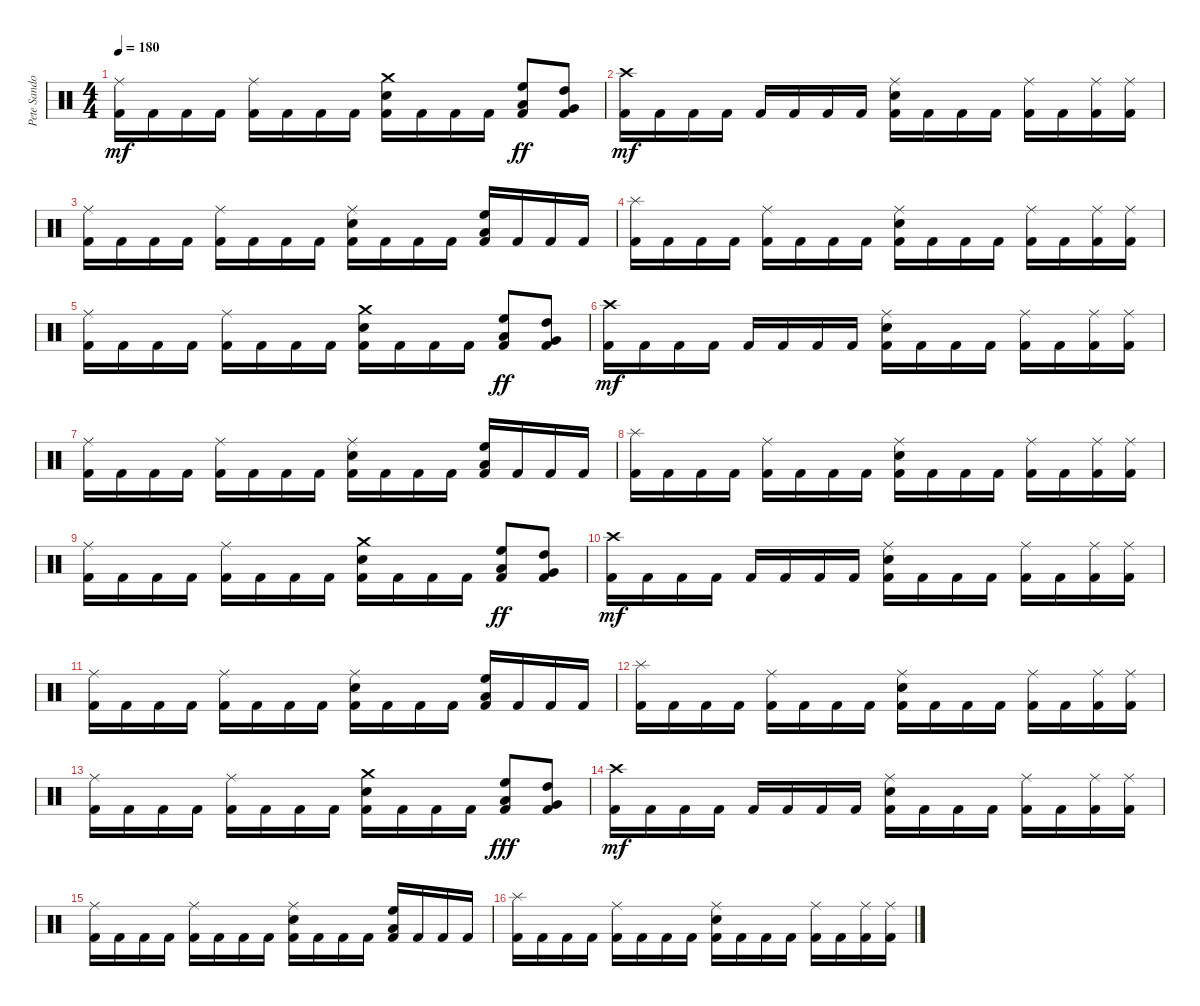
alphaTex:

\track ("Pete Sandoval" "Pete Sando") {instrument percussion}
\staff {score}
\articulation defaults
\ts (4 4)
\tempo 180
\clef neutral
\ks c
("Ride (middle)" "Kick (hit) 2").16{dy mf} "Kick (hit) 2".16 "Kick (hit) 2".16 "Kick (hit) 2".16 ("Ride (middle)" "Kick (hit) 2").16 "Kick (hit) 2".16 "Kick (hit) 2".16 "Kick (hit) 2".16 ("Snare (hit) 2" "Crash medium (hit)" "Kick (hit) 2").16 "Kick (hit) 2".16 "Kick (hit) 2".16 "Kick (hit) 2".16 ("High Floor Tom (hit)" "Low Tom (hit)" "Kick (hit) 2").8{dy ff} ("High Tom (hit)" "Very Low Tom (hit)" "Kick (hit) 2").8 |
("Crash high (hit)" "Kick (hit) 2").16{dy mf} "Kick (hit) 2".16 "Kick (hit) 2".16 "Kick (hit) 2".16 "Kick (hit) 2".16 "Kick (hit) 2".16 "Kick (hit) 2".16 "Kick (hit) 2".16 ("Snare (hit) 2" "Ride (middle)" "Kick (hit) 2").16 "Kick (hit) 2".16 "Kick (hit) 2".16 "Kick (hit) 2".16 ("Ride (middle)" "Kick (hit) 2").16 "Kick (hit) 2".16 ("Ride (middle)" "Kick (hit) 2").16 ("Ride (middle)" "Kick (hit) 2").16 |
("Ride (middle)" "Kick (hit) 2").16 "Kick (hit) 2".16 "Kick (hit) 2".16 "Kick (hit) 2".16 ("Ride (middle)" "Kick (hit) 2").16 "Kick (hit) 2".16 "Kick (hit) 2".16 "Kick (hit) 2".16 ("Snare (hit) 2" "Ride (middle)" "Kick (hit) 2").16 "Kick (hit) 2".16 "Kick (hit) 2".16 "Kick (hit) 2".16 ("High Floor Tom (hit)" "Low Tom (hit)" "Kick (hit) 2").16 "Kick (hit) 2".16 "Kick (hit) 2".16 "Kick (hit) 2".16 |
("Splash (hit)" "Kick (hit) 2").16 "Kick (hit) 2".16 "Kick (hit) 2".16 "Kick (hit) 2".16 ("Ride (middle)" "Kick (hit) 2").16 "Kick (hit) 2".16 "Kick (hit) 2".16 "Kick (hit) 2".16 ("Snare (hit) 2" "Ride (middle)" "Kick (hit) 2").16 "Kick (hit) 2".16 "Kick (hit) 2".16 "Kick (hit) 2".16 ("Ride (middle)" "Kick (hit) 2").16 "Kick (hit) 2".16 ("Ride (middle)" "Kick (hit) 2").16 ("Ride (middle)" "Kick (hit) 2").16 |
("Ride (middle)" "Kick (hit) 2").16 "Kick (hit) 2".16 "Kick (hit) 2".16 "Kick (hit) 2".16 ("Ride (middle)" "Kick (hit) 2").16 "Kick (hit) 2".16 "Kick (hit) 2".16 "Kick (hit) 2".16 ("Snare (hit) 2" "Crash medium (hit)" "Kick (hit) 2").16 "Kick (hit) 2".16 "Kick (hit) 2".16 "Kick (hit) 2".16 ("High Floor Tom (hit)" "Low Tom (hit)" "Kick (hit) 2").8{dy ff} ("High Tom (hit)" "Very Low Tom (hit)" "Kick (hit) 2").8 |
("Crash high (hit)" "Kick (hit) 2").16{dy mf} "Kick (hit) 2".16 "Kick (hit) 2".16 "Kick (hit) 2".16 "Kick (hit) 2".16 "Kick (hit) 2".16 "Kick (hit) 2".16 "Kick (hit) 2".16 ("Snare (hit) 2" "Ride (middle)" "Kick (hit) 2").16 "Kick (hit) 2".16 "Kick (hit) 2".16 "Kick (hit) 2".16 ("Ride (middle)" "Kick (hit) 2").16 "Kick (hit) 2".16 ("Ride (middle)" "Kick (hit) 2").16 ("Ride (middle)" "Kick (hit) 2").16 |
("Ride (middle)" "Kick (hit) 2").16 "Kick (hit) 2".16 "Kick (hit) 2".16 "Kick (hit) 2".16 ("Ride (middle)" "Kick (hit) 2").16 "Kick (hit) 2".16 "Kick (hit) 2".16 "Kick (hit) 2".16 ("Snare (hit) 2" "Ride (middle)" "Kick (hit) 2").16 "Kick (hit) 2".16 "Kick (hit) 2".16 "Kick (hit) 2".16 ("High Floor Tom (hit)" "Low Tom (hit)" "Kick (hit) 2").16 "Kick (hit) 2".16 "Kick (hit) 2".16 "Kick (hit) 2".16 |
("Splash (hit)" "Kick (hit) 2").16 "Kick (hit) 2".16 "Kick (hit) 2".16 "Kick (hit) 2".16 ("Ride (middle)" "Kick (hit) 2").16 "Kick (hit) 2".16 "Kick (hit) 2".16 "Kick (hit) 2".16 ("Snare (hit) 2" "Ride (middle)" "Kick (hit) 2").16 "Kick (hit) 2".16 "Kick (hit) 2".16 "Kick (hit) 2".16 ("Ride (middle)" "Kick (hit) 2").16 "Kick (hit) 2".16 ("Ride (middle)" "Kick (hit) 2").16 ("Ride (middle)" "Kick (hit) 2").16 |
("Ride (middle)" "Kick (hit) 2").16 "Kick (hit) 2".16 "Kick (hit) 2".16 "Kick (hit) 2".16 ("Ride (middle)" "Kick (hit) 2").16 "Kick (hit) 2".16 "Kick (hit) 2".16 "Kick (hit) 2".16 ("Snare (hit) 2" "Crash medium (hit)" "Kick (hit) 2").16 "Kick (hit) 2".16 "Kick (hit) 2".16 "Kick (hit) 2".16 ("High Floor Tom (hit)" "Low Tom (hit)" "Kick (hit) 2").8{dy ff} ("High Tom (hit)" "Very Low Tom (hit)" "Kick (hit) 2").8 |
("Crash high (hit)" "Kick (hit) 2").16{dy mf} "Kick (hit) 2".16 "Kick (hit) 2".16 "Kick (hit) 2".16 "Kick (hit) 2".16 "Kick (hit) 2".16 "Kick (hit) 2".16 "Kick (hit) 2".16 ("Snare (hit) 2" "Ride (middle)" "Kick (hit) 2").16 "Kick (hit) 2".16 "Kick (hit) 2".16 "Kick (hit) 2".16 ("Ride (middle)" "Kick (hit) 2").16 "Kick (hit) 2".16 ("Ride (middle)" "Kick (hit) 2").16 ("Ride (middle)" "Kick (hit) 2").16 |
("Ride (middle)" "Kick (hit) 2").16 "Kick (hit) 2".16 "Kick (hit) 2".16 "Kick (hit) 2".16 ("Ride (middle)" "Kick (hit) 2").16 "Kick (hit) 2".16 "Kick (hit) 2".16 "Kick (hit) 2".16 ("Snare (hit) 2" "Ride (middle)" "Kick (hit) 2").16 "Kick (hit) 2".16 "Kick (hit) 2".16 "Kick (hit) 2".16 ("High Floor Tom (hit)" "Low Tom (hit)" "Kick (hit) 2").16 "Kick (hit) 2".16 "Kick (hit) 2".16 "Kick (hit) 2".16 |
("Splash (hit)" "Kick (hit) 2").16 "Kick (hit) 2".16 "Kick (hit) 2".16 "Kick (hit) 2".16 ("Ride (middle)" "Kick (hit) 2").16 "Kick (hit) 2".16 "Kick (hit) 2".16 "Kick (hit) 2".16 ("Snare (hit) 2" "Ride (middle)" "Kick (hit) 2").16 "Kick (hit) 2".16 "Kick (hit) 2".16 "Kick (hit) 2".16 ("Ride (middle)" "Kick (hit) 2").16 "Kick (hit) 2".16 ("Ride (middle)" "Kick (hit) 2").16 ("Ride (middle)" "Kick (hit) 2").16 |
("Ride (middle)" "Kick (hit) 2").16 "Kick (hit) 2".16 "Kick (hit) 2".16 "Kick (hit) 2".16 ("Ride (middle)" "Kick (hit) 2").16 "Kick (hit) 2".16 "Kick (hit) 2".16 "Kick (hit) 2".16 ("Snare (hit) 2" "Crash medium (hit)" "Kick (hit) 2").16 "Kick (hit) 2".16 "Kick (hit) 2".16 "Kick (hit) 2".16 ("High Floor Tom (hit)" "Low Tom (hit)" "Kick (hit) 2").8{dy fff volume 14} ("High Tom (hit)" "Very Low Tom (hit)" "Kick (hit) 2").8 |
("Crash high (hit)" "Kick (hit) 2").16{dy mf volume 12} "Kick (hit) 2".16 "Kick (hit) 2".16 "Kick (hit) 2".16 "Kick (hit) 2".16 "Kick (hit) 2".16 "Kick (hit) 2".16 "Kick (hit) 2".16 ("Snare (hit) 2" "Ride (middle)" "Kick (hit) 2").16 "Kick (hit) 2".16 "Kick (hit) 2".16 "Kick (hit) 2".16 ("Ride (middle)" "Kick (hit) 2").16 "Kick (hit) 2".16 ("Ride (middle)" "Kick (hit) 2").16 ("Ride (middle)" "Kick (hit) 2").16 |
("Ride (middle)" "Kick (hit) 2").16 "Kick (hit) 2".16 "Kick (hit) 2".16 "Kick (hit) 2".16 ("Ride (middle)" "Kick (hit) 2").16 "Kick (hit) 2".16 "Kick (hit) 2".16 "Kick (hit) 2".16 ("Snare (hit) 2" "Ride (middle)" "Kick (hit) 2").16 "Kick (hit) 2".16 "Kick (hit) 2".16 "Kick (hit) 2".16 ("High Floor Tom (hit)" "Low Tom (hit)" "Kick (hit) 2").16 "Kick (hit) 2".16 "Kick (hit) 2".16 "Kick (hit) 2".16 |
("Splash (hit)" "Kick (hit) 2").16 "Kick (hit) 2".16 "Kick (hit) 2".16 "Kick (hit) 2".16 ("Ride (middle)" "Kick (hit) 2").16 "Kick (hit) 2".16 "Kick (hit) 2".16 "Kick (hit) 2".16 ("Snare (hit) 2" "Ride (middle)" "Kick (hit) 2").16 "Kick (hit) 2".16 "Kick (hit) 2".16 "Kick (hit) 2".16 ("Ride (middle)" "Kick (hit) 2").16 "Kick (hit) 2".16 ("Ride (middle)" "Kick (hit) 2").16 ("Ride (middle)" "Kick (hit) 2").16
